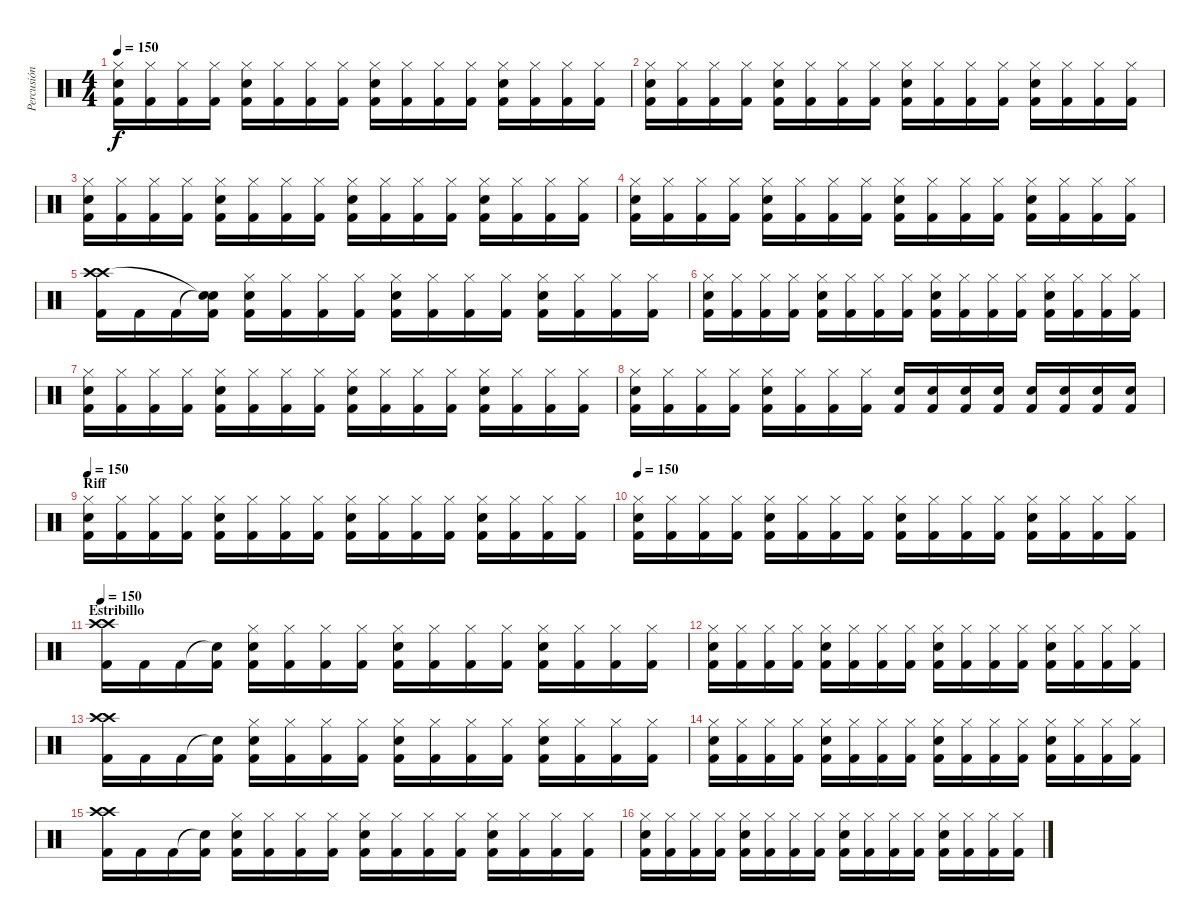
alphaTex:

\track ("Percusión" "Percusión") {instrument percussion}
\staff {score}
\articulation defaults
\ts (4 4)
\tempo 150
\clef neutral
\ks c
("Hi-Hat (closed)" "Electric Snare (hit)" "Kick (hit) 2").16{dy f} ("Hi-Hat (closed)" "Kick (hit) 2").16 ("Hi-Hat (closed)" "Kick (hit) 2").16 ("Hi-Hat (closed)" "Kick (hit) 2").16 ("Hi-Hat (closed)" "Electric Snare (hit)" "Kick (hit) 2").16 ("Hi-Hat (closed)" "Kick (hit) 2").16 ("Hi-Hat (closed)" "Kick (hit) 2").16 ("Hi-Hat (closed)" "Kick (hit) 2").16 ("Hi-Hat (closed)" "Electric Snare (hit)" "Kick (hit) 2").16 ("Hi-Hat (closed)" "Kick (hit) 2").16 ("Hi-Hat (closed)" "Kick (hit) 2").16 ("Hi-Hat (closed)" "Kick (hit) 2").16 ("Hi-Hat (closed)" "Electric Snare (hit)" "Kick (hit) 2").16 ("Hi-Hat (closed)" "Kick (hit) 2").16 ("Hi-Hat (closed)" "Kick (hit) 2").16 ("Hi-Hat (closed)" "Kick (hit) 2").16 |
("Hi-Hat (closed)" "Electric Snare (hit)" "Kick (hit) 2").16 ("Hi-Hat (closed)" "Kick (hit) 2").16 ("Hi-Hat (closed)" "Kick (hit) 2").16 ("Hi-Hat (closed)" "Kick (hit) 2").16 ("Hi-Hat (closed)" "Electric Snare (hit)" "Kick (hit) 2").16 ("Hi-Hat (closed)" "Kick (hit) 2").16 ("Hi-Hat (closed)" "Kick (hit) 2").16 ("Hi-Hat (closed)" "Kick (hit) 2").16 ("Hi-Hat (closed)" "Electric Snare (hit)" "Kick (hit) 2").16 ("Hi-Hat (closed)" "Kick (hit) 2").16 ("Hi-Hat (closed)" "Kick (hit) 2").16 ("Hi-Hat (closed)" "Kick (hit) 2").16 ("Hi-Hat (closed)" "Electric Snare (hit)" "Kick (hit) 2").16 ("Hi-Hat (closed)" "Kick (hit) 2").16 ("Hi-Hat (closed)" "Kick (hit) 2").16 ("Hi-Hat (closed)" "Kick (hit) 2").16 |
("Hi-Hat (closed)" "Electric Snare (hit)" "Kick (hit) 2").16 ("Hi-Hat (closed)" "Kick (hit) 2").16 ("Hi-Hat (closed)" "Kick (hit) 2").16 ("Hi-Hat (closed)" "Kick (hit) 2").16 ("Hi-Hat (closed)" "Electric Snare (hit)" "Kick (hit) 2").16 ("Hi-Hat (closed)" "Kick (hit) 2").16 ("Hi-Hat (closed)" "Kick (hit) 2").16 ("Hi-Hat (closed)" "Kick (hit) 2").16 ("Hi-Hat (closed)" "Electric Snare (hit)" "Kick (hit) 2").16 ("Hi-Hat (closed)" "Kick (hit) 2").16 ("Hi-Hat (closed)" "Kick (hit) 2").16 ("Hi-Hat (closed)" "Kick (hit) 2").16 ("Hi-Hat (closed)" "Electric Snare (hit)" "Kick (hit) 2").16 ("Hi-Hat (closed)" "Kick (hit) 2").16 ("Hi-Hat (closed)" "Kick (hit) 2").16 ("Hi-Hat (closed)" "Kick (hit) 2").16 |
("Hi-Hat (closed)" "Electric Snare (hit)" "Kick (hit) 2").16 ("Hi-Hat (closed)" "Kick (hit) 2").16 ("Hi-Hat (closed)" "Kick (hit) 2").16 ("Hi-Hat (closed)" "Kick (hit) 2").16 ("Hi-Hat (closed)" "Electric Snare (hit)" "Kick (hit) 2").16 ("Hi-Hat (closed)" "Kick (hit) 2").16 ("Hi-Hat (closed)" "Kick (hit) 2").16 ("Hi-Hat (closed)" "Kick (hit) 2").16 ("Hi-Hat (closed)" "Electric Snare (hit)" "Kick (hit) 2").16 ("Hi-Hat (closed)" "Kick (hit) 2").16 ("Hi-Hat (closed)" "Kick (hit) 2").16 ("Hi-Hat (closed)" "Kick (hit) 2").16 ("Hi-Hat (closed)" "Electric Snare (hit)" "Kick (hit) 2").16 ("Hi-Hat (closed)" "Kick (hit) 2").16 ("Hi-Hat (closed)" "Kick (hit) 2").16 ("Hi-Hat (closed)" "Kick (hit) 2").16 |
("Crash high (hit)" "Crash high (hit)" "Kick (hit) 2").16 "Kick (hit) 2".16 "Kick (hit) 2".16 ("Snare (hit)"{t} "Snare (hit)"{t} "Kick (hit) 2").16 ("Hi-Hat (closed)" "Electric Snare (hit)" "Kick (hit) 2").16 ("Hi-Hat (closed)" "Kick (hit) 2").16 ("Hi-Hat (closed)" "Kick (hit) 2").16 ("Hi-Hat (closed)" "Kick (hit) 2").16 ("Hi-Hat (closed)" "Electric Snare (hit)" "Kick (hit) 2").16 ("Hi-Hat (closed)" "Kick (hit) 2").16 ("Hi-Hat (closed)" "Kick (hit) 2").16 ("Hi-Hat (closed)" "Kick (hit) 2").16 ("Hi-Hat (closed)" "Electric Snare (hit)" "Kick (hit) 2").16 ("Hi-Hat (closed)" "Kick (hit) 2").16 ("Hi-Hat (closed)" "Kick (hit) 2").16 ("Hi-Hat (closed)" "Kick (hit) 2").16 |
("Hi-Hat (closed)" "Electric Snare (hit)" "Kick (hit) 2").16 ("Hi-Hat (closed)" "Kick (hit) 2").16 ("Hi-Hat (closed)" "Kick (hit) 2").16 ("Hi-Hat (closed)" "Kick (hit) 2").16 ("Hi-Hat (closed)" "Electric Snare (hit)" "Kick (hit) 2").16 ("Hi-Hat (closed)" "Kick (hit) 2").16 ("Hi-Hat (closed)" "Kick (hit) 2").16 ("Hi-Hat (closed)" "Kick (hit) 2").16 ("Hi-Hat (closed)" "Electric Snare (hit)" "Kick (hit) 2").16 ("Hi-Hat (closed)" "Kick (hit) 2").16 ("Hi-Hat (closed)" "Kick (hit) 2").16 ("Hi-Hat (closed)" "Kick (hit) 2").16 ("Hi-Hat (closed)" "Electric Snare (hit)" "Kick (hit) 2").16 ("Hi-Hat (closed)" "Kick (hit) 2").16 ("Hi-Hat (closed)" "Kick (hit) 2").16 ("Hi-Hat (closed)" "Kick (hit) 2").16 |
("Hi-Hat (closed)" "Electric Snare (hit)" "Kick (hit) 2").16 ("Hi-Hat (closed)" "Kick (hit) 2").16 ("Hi-Hat (closed)" "Kick (hit) 2").16 ("Hi-Hat (closed)" "Kick (hit) 2").16 ("Hi-Hat (closed)" "Electric Snare (hit)" "Kick (hit) 2").16 ("Hi-Hat (closed)" "Kick (hit) 2").16 ("Hi-Hat (closed)" "Kick (hit) 2").16 ("Hi-Hat (closed)" "Kick (hit) 2").16 ("Hi-Hat (closed)" "Electric Snare (hit)" "Kick (hit) 2").16 ("Hi-Hat (closed)" "Kick (hit) 2").16 ("Hi-Hat (closed)" "Kick (hit) 2").16 ("Hi-Hat (closed)" "Kick (hit) 2").16 ("Hi-Hat (closed)" "Electric Snare (hit)" "Kick (hit) 2").16 ("Hi-Hat (closed)" "Kick (hit) 2").16 ("Hi-Hat (closed)" "Kick (hit) 2").16 ("Hi-Hat (closed)" "Kick (hit) 2").16 |
("Hi-Hat (closed)" "Electric Snare (hit)" "Kick (hit) 2").16 ("Hi-Hat (closed)" "Kick (hit) 2").16 ("Hi-Hat (closed)" "Kick (hit) 2").16 ("Hi-Hat (closed)" "Kick (hit) 2").16 ("Hi-Hat (closed)" "Electric Snare (hit)" "Kick (hit) 2").16 ("Hi-Hat (closed)" "Kick (hit) 2").16 ("Hi-Hat (closed)" "Kick (hit) 2").16 ("Hi-Hat (closed)" "Kick (hit) 2").16 ("Electric Snare (hit)" "Kick (hit) 2").16 ("Electric Snare (hit)" "Kick (hit) 2").16 ("Electric Snare (hit)" "Kick (hit) 2").16 ("Electric Snare (hit)" "Kick (hit) 2").16 ("Electric Snare (hit)" "Kick (hit) 2").16 ("Electric Snare (hit)" "Kick (hit) 2").16 ("Electric Snare (hit)" "Kick (hit) 2").16 ("Electric Snare (hit)" "Kick (hit) 2").16 |
\section ("" "Riff")
\tempo 150
("Hi-Hat (closed)" "Electric Snare (hit)" "Kick (hit) 2").16 ("Hi-Hat (closed)" "Kick (hit) 2").16 ("Hi-Hat (closed)" "Kick (hit) 2").16 ("Hi-Hat (closed)" "Kick (hit) 2").16 ("Hi-Hat (closed)" "Electric Snare (hit)" "Kick (hit) 2").16 ("Hi-Hat (closed)" "Kick (hit) 2").16 ("Hi-Hat (closed)" "Kick (hit) 2").16 ("Hi-Hat (closed)" "Kick (hit) 2").16 ("Hi-Hat (closed)" "Electric Snare (hit)" "Kick (hit) 2").16 ("Hi-Hat (closed)" "Kick (hit) 2").16 ("Hi-Hat (closed)" "Kick (hit) 2").16 ("Hi-Hat (closed)" "Kick (hit) 2").16 ("Hi-Hat (closed)" "Electric Snare (hit)" "Kick (hit) 2").16 ("Hi-Hat (closed)" "Kick (hit) 2").16 ("Hi-Hat (closed)" "Kick (hit) 2").16 ("Hi-Hat (closed)" "Kick (hit) 2").16 |
\tempo 150
("Hi-Hat (closed)" "Electric Snare (hit)" "Kick (hit) 2").16 ("Hi-Hat (closed)" "Kick (hit) 2").16 ("Hi-Hat (closed)" "Kick (hit) 2").16 ("Hi-Hat (closed)" "Kick (hit) 2").16 ("Hi-Hat (closed)" "Electric Snare (hit)" "Kick (hit) 2").16 ("Hi-Hat (closed)" "Kick (hit) 2").16 ("Hi-Hat (closed)" "Kick (hit) 2").16 ("Hi-Hat (closed)" "Kick (hit) 2").16 ("Hi-Hat (closed)" "Electric Snare (hit)" "Kick (hit) 2").16 ("Hi-Hat (closed)" "Kick (hit) 2").16 ("Hi-Hat (closed)" "Kick (hit) 2").16 ("Hi-Hat (closed)" "Kick (hit) 2").16 ("Hi-Hat (closed)" "Electric Snare (hit)" "Kick (hit) 2").16 ("Hi-Hat (closed)" "Kick (hit) 2").16 ("Hi-Hat (closed)" "Kick (hit) 2").16 ("Hi-Hat (closed)" "Kick (hit) 2").16 |
\section ("" "Estribillo")
\tempo 150
("Crash high (hit)" "Crash high (hit)" "Kick (hit) 2").16 "Kick (hit) 2".16 "Kick (hit) 2".16 ("Snare (hit)"{t} "Kick (hit) 2").16 ("Hi-Hat (closed)" "Electric Snare (hit)" "Kick (hit) 2").16 ("Hi-Hat (closed)" "Kick (hit) 2").16 ("Hi-Hat (closed)" "Kick (hit) 2").16 ("Hi-Hat (closed)" "Kick (hit) 2").16 ("Hi-Hat (closed)" "Electric Snare (hit)" "Kick (hit) 2").16 ("Hi-Hat (closed)" "Kick (hit) 2").16 ("Hi-Hat (closed)" "Kick (hit) 2").16 ("Hi-Hat (closed)" "Kick (hit) 2").16 ("Hi-Hat (closed)" "Electric Snare (hit)" "Kick (hit) 2").16 ("Hi-Hat (closed)" "Kick (hit) 2").16 ("Hi-Hat (closed)" "Kick (hit) 2").16 ("Hi-Hat (closed)" "Kick (hit) 2").16 |
("Hi-Hat (closed)" "Electric Snare (hit)" "Kick (hit) 2").16 ("Hi-Hat (closed)" "Kick (hit) 2").16 ("Hi-Hat (closed)" "Kick (hit) 2").16 ("Hi-Hat (closed)" "Kick (hit) 2").16 ("Hi-Hat (closed)" "Electric Snare (hit)" "Kick (hit) 2").16 ("Hi-Hat (closed)" "Kick (hit) 2").16 ("Hi-Hat (closed)" "Kick (hit) 2").16 ("Hi-Hat (closed)" "Kick (hit) 2").16 ("Hi-Hat (closed)" "Electric Snare (hit)" "Kick (hit) 2").16 ("Hi-Hat (closed)" "Kick (hit) 2").16 ("Hi-Hat (closed)" "Kick (hit) 2").16 ("Hi-Hat (closed)" "Kick (hit) 2").16 ("Hi-Hat (closed)" "Electric Snare (hit)" "Kick (hit) 2").16 ("Hi-Hat (closed)" "Kick (hit) 2").16 ("Hi-Hat (closed)" "Kick (hit) 2").16 ("Hi-Hat (closed)" "Kick (hit) 2").16 |
("Crash high (hit)" "Crash high (hit)" "Kick (hit) 2").16 "Kick (hit) 2".16 "Kick (hit) 2".16 ("Snare (hit)"{t} "Kick (hit) 2").16 ("Hi-Hat (closed)" "Electric Snare (hit)" "Kick (hit) 2").16 ("Hi-Hat (closed)" "Kick (hit) 2").16 ("Hi-Hat (closed)" "Kick (hit) 2").16 ("Hi-Hat (closed)" "Kick (hit) 2").16 ("Hi-Hat (closed)" "Electric Snare (hit)" "Kick (hit) 2").16 ("Hi-Hat (closed)" "Kick (hit) 2").16 ("Hi-Hat (closed)" "Kick (hit) 2").16 ("Hi-Hat (closed)" "Kick (hit) 2").16 ("Hi-Hat (closed)" "Electric Snare (hit)" "Kick (hit) 2").16 ("Hi-Hat (closed)" "Kick (hit) 2").16 ("Hi-Hat (closed)" "Kick (hit) 2").16 ("Hi-Hat (closed)" "Kick (hit) 2").16 |
("Hi-Hat (closed)" "Electric Snare (hit)" "Kick (hit) 2").16 ("Hi-Hat (closed)" "Kick (hit) 2").16 ("Hi-Hat (closed)" "Kick (hit) 2").16 ("Hi-Hat (closed)" "Kick (hit) 2").16 ("Hi-Hat (closed)" "Electric Snare (hit)" "Kick (hit) 2").16 ("Hi-Hat (closed)" "Kick (hit) 2").16 ("Hi-Hat (closed)" "Kick (hit) 2").16 ("Hi-Hat (closed)" "Kick (hit) 2").16 ("Hi-Hat (closed)" "Electric Snare (hit)" "Kick (hit) 2").16 ("Hi-Hat (closed)" "Kick (hit) 2").16 ("Hi-Hat (closed)" "Kick (hit) 2").16 ("Hi-Hat (closed)" "Kick (hit) 2").16 ("Hi-Hat (closed)" "Electric Snare (hit)" "Kick (hit) 2").16 ("Hi-Hat (closed)" "Kick (hit) 2").16 ("Hi-Hat (closed)" "Kick (hit) 2").16 ("Hi-Hat (closed)" "Kick (hit) 2").16 |
("Crash high (hit)" "Crash high (hit)" "Kick (hit) 2").16 "Kick (hit) 2".16 "Kick (hit) 2".16 ("Snare (hit)"{t} "Kick (hit) 2").16 ("Hi-Hat (closed)" "Electric Snare (hit)" "Kick (hit) 2").16 ("Hi-Hat (closed)" "Kick (hit) 2").16 ("Hi-Hat (closed)" "Kick (hit) 2").16 ("Hi-Hat (closed)" "Kick (hit) 2").16 ("Hi-Hat (closed)" "Electric Snare (hit)" "Kick (hit) 2").16 ("Hi-Hat (closed)" "Kick (hit) 2").16 ("Hi-Hat (closed)" "Kick (hit) 2").16 ("Hi-Hat (closed)" "Kick (hit) 2").16 ("Hi-Hat (closed)" "Electric Snare (hit)" "Kick (hit) 2").16 ("Hi-Hat (closed)" "Kick (hit) 2").16 ("Hi-Hat (closed)" "Kick (hit) 2").16 ("Hi-Hat (closed)" "Kick (hit) 2").16 |
("Hi-Hat (closed)" "Electric Snare (hit)" "Kick (hit) 2").16 ("Hi-Hat (closed)" "Kick (hit) 2").16 ("Hi-Hat (closed)" "Kick (hit) 2").16 ("Hi-Hat (closed)" "Kick (hit) 2").16 ("Hi-Hat (closed)" "Electric Snare (hit)" "Kick (hit) 2").16 ("Hi-Hat (closed)" "Kick (hit) 2").16 ("Hi-Hat (closed)" "Kick (hit) 2").16 ("Hi-Hat (closed)" "Kick (hit) 2").16 ("Hi-Hat (closed)" "Electric Snare (hit)" "Kick (hit) 2").16 ("Hi-Hat (closed)" "Kick (hit) 2").16 ("Hi-Hat (closed)" "Kick (hit) 2").16 ("Hi-Hat (closed)" "Kick (hit) 2").16 ("Hi-Hat (closed)" "Electric Snare (hit)" "Kick (hit) 2").16 ("Hi-Hat (closed)" "Kick (hit) 2").16 ("Hi-Hat (closed)" "Kick (hit) 2").16 ("Hi-Hat (closed)" "Kick (hit) 2").16
